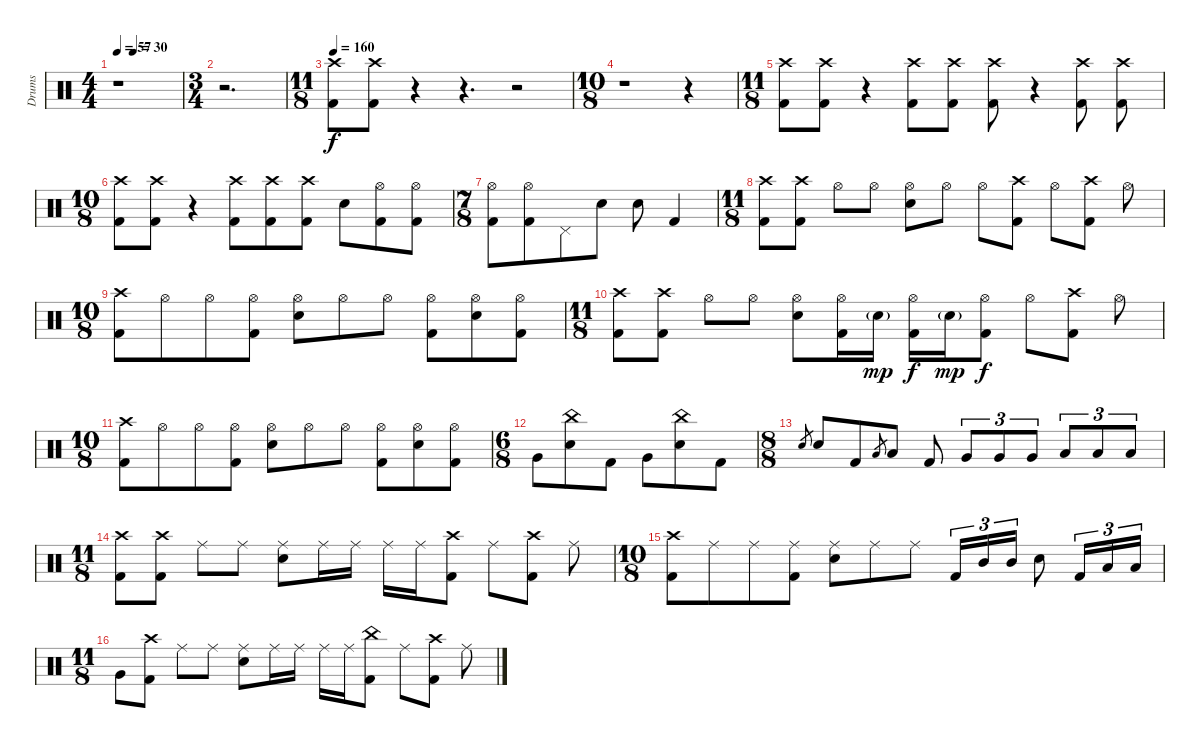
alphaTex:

\track ("Drums" "Drums") {instrument percussion}
\staff {score}
\articulation defaults
\ts (4 4)
\tempo 57
\tempo (30 0.25)
\clef neutral
\ks c
r.1{dy f} |
\ts (3 4)
r.2{d} |
\ts (11 8)
\tempo 160
("Crash high (hit)" "Kick (hit) 2").8{volume 13} ("Crash high (hit)" "Kick (hit) 2").8 r.4{volume 0} r.4{d} r.2 |
\ts (10 8)
r.1 r.4 |
\ts (11 8)
("Crash high (hit)" "Kick (hit) 2").8{volume 13} ("Crash high (hit)" "Kick (hit) 2").8 r.4{volume 0} ("Crash high (hit)" "Kick (hit) 2").8{volume 13} ("Crash high (hit)" "Kick (hit) 2").8 ("Crash high (hit)" "Kick (hit) 2").8 r.4{volume 0} ("Crash high (hit)" "Kick (hit) 2").8{volume 13} ("Crash high (hit)" "Kick (hit) 2").8 |
\ts (10 8)
("Crash high (hit)" "Kick (hit) 2").8 ("Crash high (hit)" "Kick (hit) 2").8 r.4{volume 0} ("Crash high (hit)" "Kick (hit) 2").8{volume 13} ("Crash high (hit)" "Kick (hit) 2").8 ("Crash high (hit)" "Kick (hit) 2").8 "Electric Snare (hit)".8 ("Hi-Hat (open)" "Kick (hit) 2").8 ("Hi-Hat (open)" "Kick (hit) 2").8 |
\ts (7 8)
("Hi-Hat (open)" "Kick (hit) 2").8 ("Hi-Hat (open)" "Kick (hit) 2").8 "Pedal Hi-Hat (hit)".8 "Electric Snare (hit)".8 "Electric Snare (hit)".8 "Kick (hit) 2".4 |
\ts (11 8)
("Crash high (hit)" "Kick (hit) 2").8 ("Crash high (hit)" "Kick (hit) 2").8 "Hi-Hat (open)".8 "Hi-Hat (open)".8 ("Hi-Hat (open)" "Electric Snare (hit)").8 "Hi-Hat (open)".8 "Hi-Hat (open)".8 ("Crash high (hit)" "Kick (hit) 2").8 "Hi-Hat (open)".8 ("Crash high (hit)" "Kick (hit) 2").8 "Hi-Hat (open)".8 |
\ts (10 8)
("Crash high (hit)" "Kick (hit) 2").8 "Hi-Hat (open)".8 "Hi-Hat (open)".8 ("Hi-Hat (open)" "Kick (hit) 2").8 ("Hi-Hat (open)" "Electric Snare (hit)").8 "Hi-Hat (open)".8 "Hi-Hat (open)".8 ("Hi-Hat (open)" "Kick (hit) 2").8 ("Hi-Hat (open)" "Electric Snare (hit)").8 ("Hi-Hat (open)" "Kick (hit) 2").8 |
\ts (11 8)
("Crash high (hit)" "Kick (hit) 2").8 ("Crash high (hit)" "Kick (hit) 2").8 "Hi-Hat (open)".8 "Hi-Hat (open)".8 ("Hi-Hat (open)" "Electric Snare (hit)").8 ("Hi-Hat (open)" "Kick (hit) 2").16 "Electric Snare (hit)"{g}.16{dy mp} ("Hi-Hat (open)" "Kick (hit) 2").16{dy f} "Electric Snare (hit)"{g}.16{dy mp} ("Hi-Hat (open)" "Kick (hit) 2").8{dy f} "Hi-Hat (open)".8 ("Crash high (hit)" "Kick (hit) 2").8 "Hi-Hat (open)".8 |
\ts (10 8)
("Crash high (hit)" "Kick (hit) 2").8 "Hi-Hat (open)".8 "Hi-Hat (open)".8 ("Hi-Hat (open)" "Kick (hit) 2").8 ("Hi-Hat (open)" "Electric Snare (hit)").8 "Hi-Hat (open)".8 "Hi-Hat (open)".8 ("Hi-Hat (open)" "Kick (hit) 2").8 ("Hi-Hat (open)" "Electric Snare (hit)").8 ("Hi-Hat (open)" "Kick (hit) 2").8 |
\ts (6 8)
"Very Low Tom (hit)".8 ("China (hit)" "Electric Snare (hit)").8 "Kick (hit) 2".8 "Very Low Tom (hit)".8 ("China (hit)" "Electric Snare (hit)").8 "Kick (hit) 2".8 |
\ts (8 8)
"Electric Snare (hit)".8{gr} "Electric Snare (hit)".8 "Kick (hit) 2".8 "Low Tom (hit)".8{gr} "Low Tom (hit)".8 "Kick (hit) 2".8 "Very Low Tom (hit)".8{tu (3 2)} "Very Low Tom (hit)".8{tu (3 2)} "Very Low Tom (hit)".8{tu (3 2)} "Low Floor Tom (hit)".8{tu (3 2)} "Low Floor Tom (hit)".8{tu (3 2)} "Low Floor Tom (hit)".8{tu (3 2)} |
\ts (11 8)
("Crash high (hit)" "Kick (hit) 2").8 ("Crash high (hit)" "Kick (hit) 2").8 "Ride (middle)".8 "Ride (middle)".8 ("Ride (middle)" "Electric Snare (hit)").8 "Ride (middle)".16 "Ride (middle)".16 "Ride (middle)".16 "Ride (middle)".16 ("Crash high (hit)" "Kick (hit) 2").8 "Ride (middle)".8 ("Crash high (hit)" "Kick (hit) 2").8 "Ride (middle)".8 |
\ts (10 8)
("Crash high (hit)" "Kick (hit) 2").8 "Ride (middle)".8 "Ride (middle)".8 ("Ride (middle)" "Kick (hit) 2").8 ("Ride (middle)" "Electric Snare (hit)").8 "Ride (middle)".8 "Ride (middle)".8 "Kick (hit) 2".16{tu (3 2)} "Mid Tom (hit)".16{tu (3 2)} "Mid Tom (hit)".16{tu (3 2)} "Electric Snare (hit)".8 "Kick (hit) 2".16{tu (3 2)} "Low Tom (hit)".16{tu (3 2)} "Low Tom (hit)".16{tu (3 2)} |
\ts (11 8)
"Very Low Tom (hit)".8 ("Crash high (hit)" "Kick (hit) 2").8 "Ride (middle)".8 "Ride (middle)".8 ("Ride (middle)" "Electric Snare (hit)").8 "Ride (middle)".16 "Ride (middle)".16 "Ride (middle)".16 "Ride (middle)".16 ("China (hit)" "Kick (hit) 2").8 "Ride (middle)".8 ("Crash high (hit)" "Kick (hit) 2").8 "Ride (middle)".8
